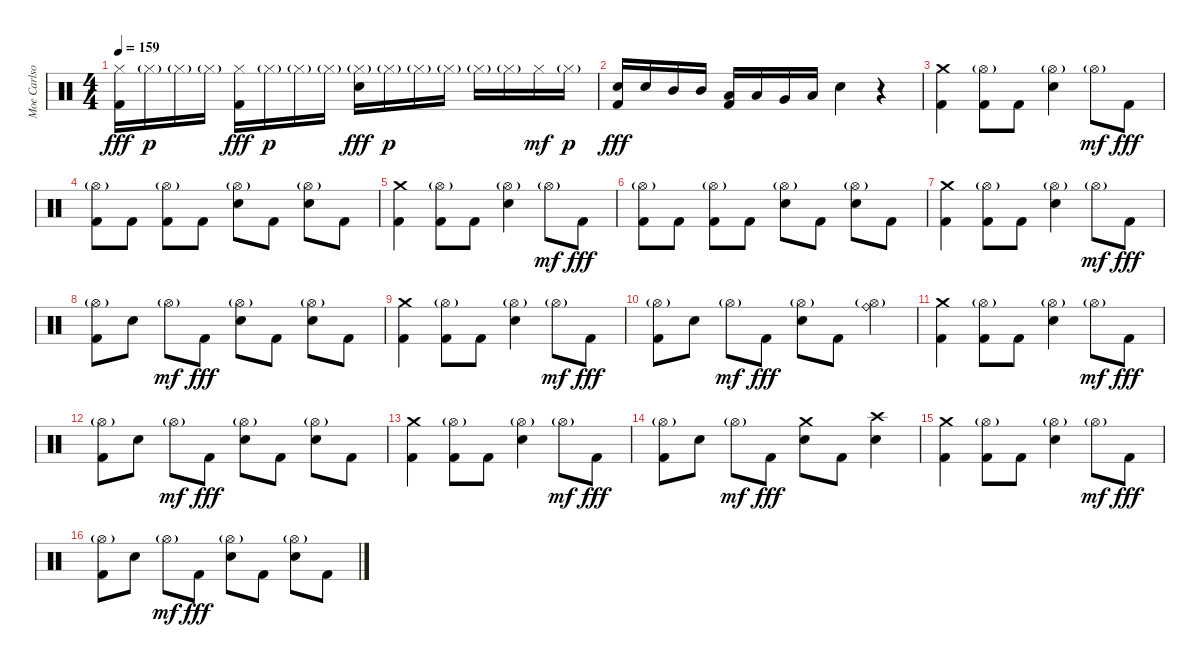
\track ("Moe Carlson" "Moe Carlso") {instrument percussion}
\staff {score}
\articulation defaults
\ts (4 4)
\tempo 159
\clef neutral
\ks c
("Hi-Hat (closed)" "Kick (hit) 2").16{dy fff} "Hi-Hat (closed)"{g}.16{dy p} "Hi-Hat (closed)"{g}.16 "Hi-Hat (closed)"{g}.16 ("Hi-Hat (closed)" "Kick (hit) 2").16{dy fff} "Hi-Hat (closed)"{g}.16{dy p} "Hi-Hat (closed)"{g}.16 "Hi-Hat (closed)"{g}.16 ("Hi-Hat (closed)"{g} "Electric Snare (hit)").16{dy fff} "Hi-Hat (closed)"{g}.16{dy p} "Hi-Hat (closed)"{g}.16 "Hi-Hat (closed)"{g}.16 "Hi-Hat (closed)"{g}.16 "Hi-Hat (closed)"{g}.16 "Hi-Hat (closed)".16{dy mf} "Hi-Hat (closed)"{g}.16{dy p} |
("Electric Snare (hit)" "Kick (hit) 2").16{dy fff} "Electric Snare (hit)".16 "Mid Tom (hit)".16 "Mid Tom (hit)".16 ("Low Tom (hit)" "Kick (hit) 2").16 "Low Tom (hit)".16 "Very Low Tom (hit)".16 "Low Floor Tom (hit)".16 "Electric Snare (hit)".4 r.4 |
("Crash medium (hit)" "Kick (hit) 2").4 ("Hi-Hat (open)"{g} "Kick (hit) 2").8 "Kick (hit) 2".8 ("Hi-Hat (open)"{g} "Electric Snare (hit)").4 "Hi-Hat (open)"{g}.8{dy mf} "Kick (hit) 2".8{dy fff} |
("Hi-Hat (open)"{g} "Kick (hit) 2").8 "Kick (hit) 2".8 ("Hi-Hat (open)"{g} "Kick (hit) 2").8 "Kick (hit) 2".8 ("Hi-Hat (open)"{g} "Electric Snare (hit)").8 "Kick (hit) 2".8 ("Hi-Hat (open)"{g} "Electric Snare (hit)").8 "Kick (hit) 2".8 |
("Crash medium (hit)" "Kick (hit) 2").4 ("Hi-Hat (open)"{g} "Kick (hit) 2").8 "Kick (hit) 2".8 ("Hi-Hat (open)"{g} "Electric Snare (hit)").4 "Hi-Hat (open)"{g}.8{dy mf} "Kick (hit) 2".8{dy fff} |
("Hi-Hat (open)"{g} "Kick (hit) 2").8 "Kick (hit) 2".8 ("Hi-Hat (open)"{g} "Kick (hit) 2").8 "Kick (hit) 2".8 ("Hi-Hat (open)"{g} "Electric Snare (hit)").8 "Kick (hit) 2".8 ("Hi-Hat (open)"{g} "Electric Snare (hit)").8 "Kick (hit) 2".8 |
("Crash medium (hit)" "Kick (hit) 2").4 ("Hi-Hat (open)"{g} "Kick (hit) 2").8 "Kick (hit) 2".8 ("Hi-Hat (open)"{g} "Electric Snare (hit)").4 "Hi-Hat (open)"{g}.8{dy mf} "Kick (hit) 2".8{dy fff} |
("Hi-Hat (open)"{g} "Kick (hit) 2").8 "Electric Snare (hit)".8 "Hi-Hat (open)"{g}.8{dy mf} "Kick (hit) 2".8{dy fff} ("Hi-Hat (open)"{g} "Electric Snare (hit)").8 "Kick (hit) 2".8 ("Hi-Hat (open)"{g} "Electric Snare (hit)").8 "Kick (hit) 2".8 |
("Crash medium (hit)" "Kick (hit) 2").4 ("Hi-Hat (open)"{g} "Kick (hit) 2").8 "Kick (hit) 2".8 ("Hi-Hat (open)"{g} "Electric Snare (hit)").4 "Hi-Hat (open)"{g}.8{dy mf} "Kick (hit) 2".8{dy fff} |
("Hi-Hat (open)"{g} "Kick (hit) 2").8 "Electric Snare (hit)".8 "Hi-Hat (open)"{g}.8{dy mf} "Kick (hit) 2".8{dy fff} ("Hi-Hat (open)"{g} "Electric Snare (hit)").8 "Kick (hit) 2".8 ("Ride (bell)" "Hi-Hat (open)"{g}).4 |
("Crash medium (hit)" "Kick (hit) 2").4 ("Hi-Hat (open)"{g} "Kick (hit) 2").8 "Kick (hit) 2".8 ("Hi-Hat (open)"{g} "Electric Snare (hit)").4 "Hi-Hat (open)"{g}.8{dy mf} "Kick (hit) 2".8{dy fff} |
("Hi-Hat (open)"{g} "Kick (hit) 2").8 "Electric Snare (hit)".8 "Hi-Hat (open)"{g}.8{dy mf} "Kick (hit) 2".8{dy fff} ("Hi-Hat (open)"{g} "Electric Snare (hit)").8 "Kick (hit) 2".8 ("Hi-Hat (open)"{g} "Electric Snare (hit)").8 "Kick (hit) 2".8 |
("Crash medium (hit)" "Kick (hit) 2").4 ("Hi-Hat (open)"{g} "Kick (hit) 2").8 "Kick (hit) 2".8 ("Hi-Hat (open)"{g} "Electric Snare (hit)").4 "Hi-Hat (open)"{g}.8{dy mf} "Kick (hit) 2".8{dy fff} |
("Hi-Hat (open)"{g} "Kick (hit) 2").8 "Electric Snare (hit)".8 "Hi-Hat (open)"{g}.8{dy mf} "Kick (hit) 2".8{dy fff} ("Crash medium (hit)" "Electric Snare (hit)").8 "Kick (hit) 2".8 ("Crash high (hit)" "Electric Snare (hit)").4 |
("Crash medium (hit)" "Kick (hit) 2").4 ("Hi-Hat (open)"{g} "Kick (hit) 2").8 "Kick (hit) 2".8 ("Hi-Hat (open)"{g} "Electric Snare (hit)").4 "Hi-Hat (open)"{g}.8{dy mf} "Kick (hit) 2".8{dy fff} |
("Hi-Hat (open)"{g} "Kick (hit) 2").8 "Electric Snare (hit)".8 "Hi-Hat (open)"{g}.8{dy mf} "Kick (hit) 2".8{dy fff} ("Hi-Hat (open)"{g} "Electric Snare (hit)").8 "Kick (hit) 2".8 ("Hi-Hat (open)"{g} "Electric Snare (hit)").8 "Kick (hit) 2".8
